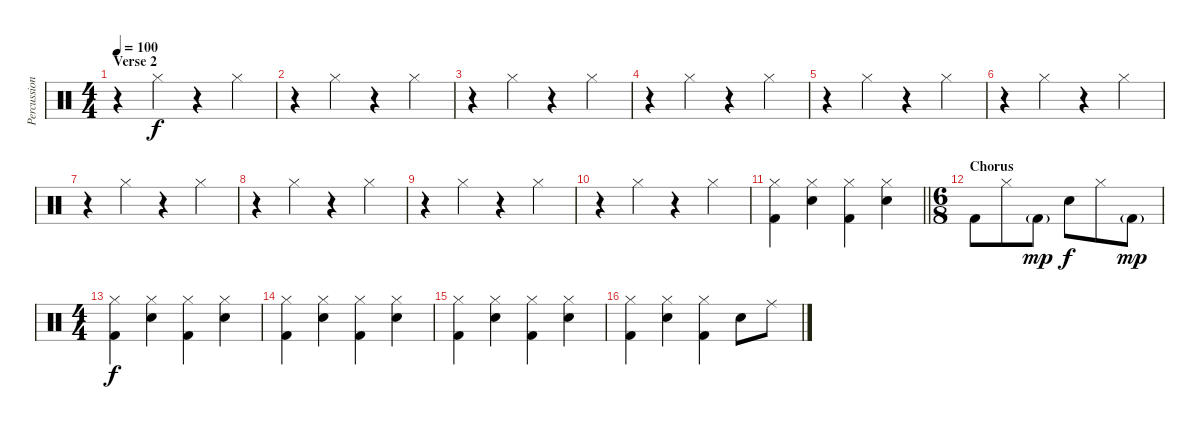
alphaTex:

\track ("Percussion" "Percussion") {instrument percussion}
\staff {score}
\articulation defaults
\ts (4 4)
\section ("" "Verse 2")
\tempo 100
\clef neutral
\ks c
r.4{dy f} "Hi-Hat (closed)".4 r.4 "Hi-Hat (closed)".4 |
r.4 "Hi-Hat (closed)".4 r.4 "Hi-Hat (closed)".4 |
r.4 "Hi-Hat (closed)".4 r.4 "Hi-Hat (closed)".4 |
r.4 "Hi-Hat (closed)".4 r.4 "Hi-Hat (closed)".4 |
r.4 "Hi-Hat (closed)".4 r.4 "Hi-Hat (closed)".4 |
r.4 "Hi-Hat (closed)".4 r.4 "Hi-Hat (closed)".4 |
r.4 "Hi-Hat (closed)".4 r.4 "Hi-Hat (closed)".4 |
r.4 "Hi-Hat (closed)".4 r.4 "Hi-Hat (closed)".4 |
r.4 "Hi-Hat (closed)".4 r.4 "Hi-Hat (closed)".4 |
r.4 "Hi-Hat (closed)".4 r.4 "Hi-Hat (closed)".4 |
\barLineRight lightlight
("Hi-Hat (closed)" "Kick (hit) 2").4{volume 5} ("Hi-Hat (closed)" "Snare (hit) 2").4 ("Hi-Hat (closed)" "Kick (hit) 2").4 ("Hi-Hat (closed)" "Snare (hit) 2").4 |
\ts (6 8)
\section ("" "Chorus")
"Kick (hit) 2".8 "Hi-Hat (closed)".8 "Kick (hit) 2"{g}.8{dy mp} "Snare (hit) 2".8{dy f} "Hi-Hat (closed)".8 "Kick (hit) 2"{g}.8{dy mp} |
\ts (4 4)
("Hi-Hat (closed)" "Kick (hit) 2").4{dy f} ("Hi-Hat (closed)" "Snare (hit) 2").4 ("Hi-Hat (closed)" "Kick (hit) 2").4 ("Hi-Hat (closed)" "Snare (hit) 2").4 |
("Hi-Hat (closed)" "Kick (hit) 2").4 ("Hi-Hat (closed)" "Snare (hit) 2").4 ("Hi-Hat (closed)" "Kick (hit) 2").4 ("Hi-Hat (closed)" "Snare (hit) 2").4 |
("Hi-Hat (closed)" "Kick (hit) 2").4 ("Hi-Hat (closed)" "Snare (hit) 2").4 ("Hi-Hat (closed)" "Kick (hit) 2").4 ("Hi-Hat (closed)" "Snare (hit) 2").4 |
("Hi-Hat (closed)" "Kick (hit) 2").4 ("Hi-Hat (closed)" "Snare (hit) 2").4 ("Hi-Hat (closed)" "Kick (hit) 2").4 "Snare (hit) 2".8 "Ride (middle)".8
